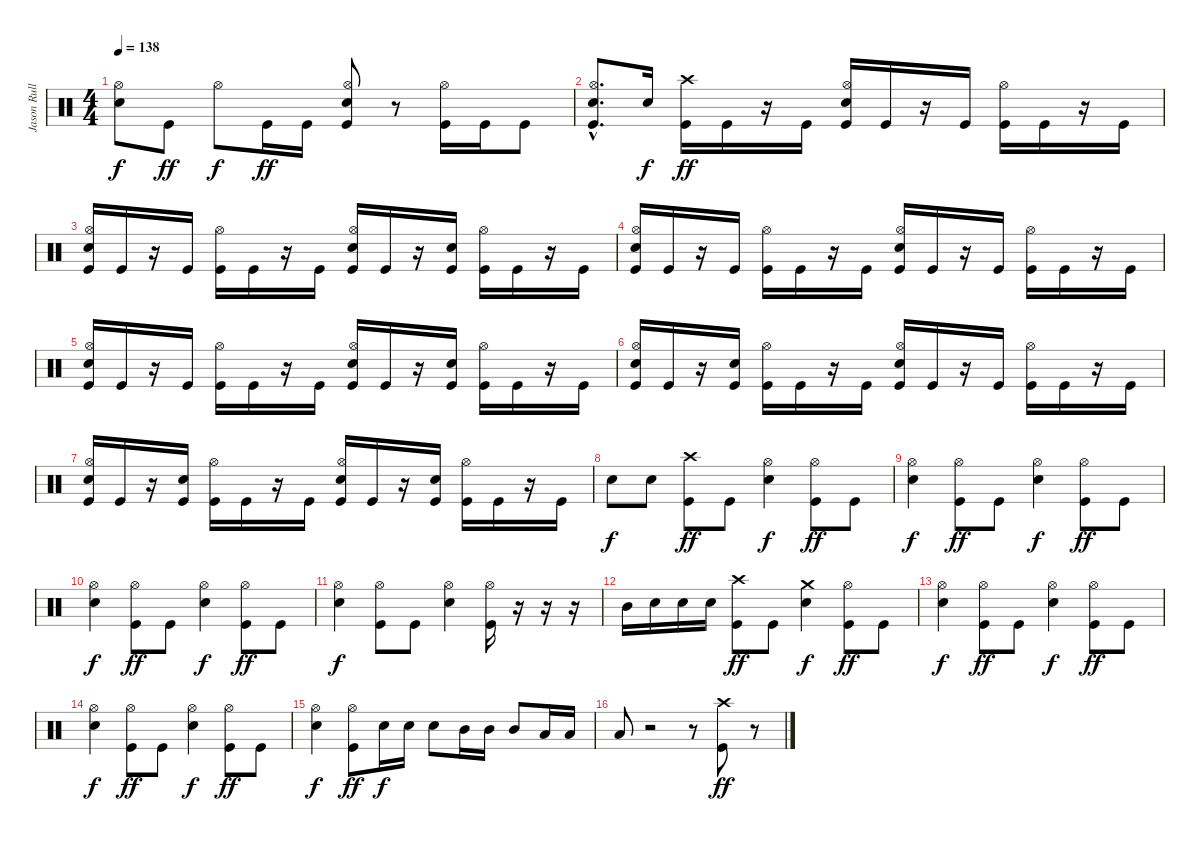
\track ("Jason Rullo" "Jason Rull") {instrument percussion}
\staff {score}
\articulation defaults
\ts (4 4)
\tempo 138
\clef neutral
\ks c
("Snare (hit) 2" "Hi-Hat (open)").8{dy f} "Kick (hit)".8{dy ff} "Hi-Hat (open)".8{dy f} "Kick (hit)".16{dy ff} "Kick (hit)".16 ("Kick (hit)" "Snare (hit) 2" "Hi-Hat (open)").8 r.8 ("Kick (hit)" "Hi-Hat (open)").16 "Kick (hit)".16 "Kick (hit)".8 |
("Kick (hit)"{hac} "Snare (hit) 2"{hac} "Hi-Hat (open)"{hac}).8{d} "Snare (hit) 2".16{dy f} ("Kick (hit)" "Crash high (hit)").16{dy ff} "Kick (hit)".16 r.16 "Kick (hit)".16 ("Kick (hit)" "Snare (hit) 2" "Hi-Hat (open)").16 "Kick (hit)".16 r.16 "Kick (hit)".16 ("Kick (hit)" "Hi-Hat (open)").16 "Kick (hit)".16 r.16 "Kick (hit)".16 |
("Kick (hit)" "Snare (hit) 2" "Hi-Hat (open)").16 "Kick (hit)".16 r.16 "Kick (hit)".16 ("Kick (hit)" "Hi-Hat (open)").16 "Kick (hit)".16 r.16 "Kick (hit)".16 ("Kick (hit)" "Snare (hit) 2" "Hi-Hat (open)").16 "Kick (hit)".16 r.16 ("Kick (hit)" "Snare (hit) 2").16 ("Kick (hit)" "Hi-Hat (open)").16 "Kick (hit)".16 r.16 "Kick (hit)".16 |
("Kick (hit)" "Snare (hit) 2" "Hi-Hat (open)").16 "Kick (hit)".16 r.16 "Kick (hit)".16 ("Kick (hit)" "Hi-Hat (open)").16 "Kick (hit)".16 r.16 "Kick (hit)".16 ("Kick (hit)" "Snare (hit) 2" "Hi-Hat (open)").16 "Kick (hit)".16 r.16 "Kick (hit)".16 ("Kick (hit)" "Hi-Hat (open)").16 "Kick (hit)".16 r.16 "Kick (hit)".16 |
("Kick (hit)" "Snare (hit) 2" "Hi-Hat (open)").16 "Kick (hit)".16 r.16 "Kick (hit)".16 ("Kick (hit)" "Hi-Hat (open)").16 "Kick (hit)".16 r.16 "Kick (hit)".16 ("Kick (hit)" "Snare (hit) 2" "Hi-Hat (open)").16 "Kick (hit)".16 r.16 ("Kick (hit)" "Snare (hit) 2").16 ("Kick (hit)" "Hi-Hat (open)").16 "Kick (hit)".16 r.16 "Kick (hit)".16 |
("Kick (hit)" "Snare (hit) 2" "Hi-Hat (open)").16 "Kick (hit)".16 r.16 ("Kick (hit)" "Snare (hit) 2").16 ("Kick (hit)" "Hi-Hat (open)").16 "Kick (hit)".16 r.16 "Kick (hit)".16 ("Kick (hit)" "Snare (hit) 2" "Hi-Hat (open)").16 "Kick (hit)".16 r.16 "Kick (hit)".16 ("Kick (hit)" "Hi-Hat (open)").16 "Kick (hit)".16 r.16 "Kick (hit)".16 |
("Kick (hit)" "Snare (hit) 2" "Hi-Hat (open)").16 "Kick (hit)".16 r.16 ("Kick (hit)" "Snare (hit) 2").16 ("Kick (hit)" "Hi-Hat (open)").16 "Kick (hit)".16 r.16 "Kick (hit)".16 ("Kick (hit)" "Snare (hit) 2" "Hi-Hat (open)").16 "Kick (hit)".16 r.16 ("Kick (hit)" "Snare (hit) 2").16 ("Kick (hit)" "Hi-Hat (open)").16 "Kick (hit)".16 r.16 "Kick (hit)".16 |
"Snare (hit) 2".8{dy f} "Snare (hit) 2".8 ("Kick (hit)" "Crash high (hit)").8{dy ff} "Kick (hit)".8 ("Snare (hit) 2" "Hi-Hat (open)").4{dy f} ("Kick (hit)" "Hi-Hat (open)").8{dy ff} "Kick (hit)".8 |
("Snare (hit) 2" "Hi-Hat (open)").4{dy f} ("Kick (hit)" "Hi-Hat (open)").8{dy ff} "Kick (hit)".8 ("Snare (hit) 2" "Hi-Hat (open)").4{dy f} ("Kick (hit)" "Hi-Hat (open)").8{dy ff} "Kick (hit)".8 |
("Snare (hit) 2" "Hi-Hat (open)").4{dy f} ("Kick (hit)" "Hi-Hat (open)").8{dy ff} "Kick (hit)".8 ("Snare (hit) 2" "Hi-Hat (open)").4{dy f} ("Kick (hit)" "Hi-Hat (open)").8{dy ff} "Kick (hit)".8 |
("Snare (hit) 2" "Hi-Hat (open)").4{dy f} ("Kick (hit)" "Hi-Hat (open)").8 "Kick (hit)".8 ("Snare (hit) 2" "Hi-Hat (open)").4 ("Kick (hit)" "Hi-Hat (open)").16 r.16 r.16 r.16 |
"Mid Tom (hit)".16 "Snare (hit) 2".16 "Snare (hit) 2".16 "Snare (hit) 2".16 ("Kick (hit)" "Crash high (hit)").8{dy ff} "Kick (hit)".8 ("Snare (hit) 2" "Crash medium (hit)").4{dy f} ("Kick (hit)" "Hi-Hat (open)").8{dy ff} "Kick (hit)".8 |
("Snare (hit) 2" "Hi-Hat (open)").4{dy f} ("Kick (hit)" "Hi-Hat (open)").8{dy ff} "Kick (hit)".8 ("Snare (hit) 2" "Hi-Hat (open)").4{dy f} ("Kick (hit)" "Hi-Hat (open)").8{dy ff} "Kick (hit)".8 |
("Snare (hit) 2" "Hi-Hat (open)").4{dy f} ("Kick (hit)" "Hi-Hat (open)").8{dy ff} "Kick (hit)".8 ("Snare (hit) 2" "Hi-Hat (open)").4{dy f} ("Kick (hit)" "Hi-Hat (open)").8{dy ff} "Kick (hit)".8 |
("Snare (hit) 2" "Hi-Hat (open)").4{dy f} ("Kick (hit)" "Hi-Hat (open)").8{dy ff} "Snare (hit) 2".16{dy f} "Snare (hit) 2".16 "Snare (hit) 2".8 "Mid Tom (hit)".16 "Mid Tom (hit)".16 "Mid Tom (hit)".8 "Low Tom (hit)".16 "Low Tom (hit)".16 |
"Low Tom (hit)".8 r.2 r.8 ("Kick (hit)" "Crash high (hit)").8{dy ff} r.8
